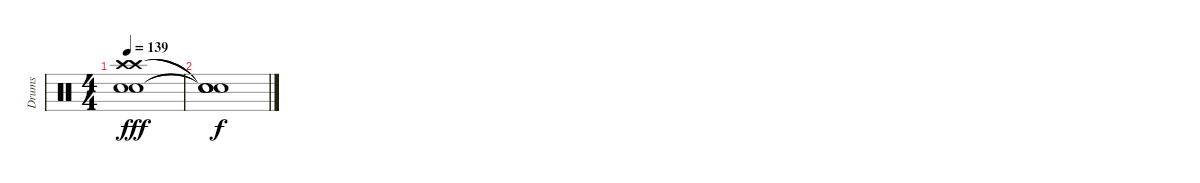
\track ("Drums" "Drums") {instrument percussion}
\staff {score}
\articulation defaults
\ts (4 4)
\tempo 139
\clef neutral
\ks c
("Electric Snare (hit)" "Electric Snare (hit)" "Crash high (hit)" "Crash high (hit)").1{dy fff} |
("Snare (hit)"{t} "Snare (hit)"{t} "Snare (hit)"{t} "Snare (hit)"{t}).1{dy f}
